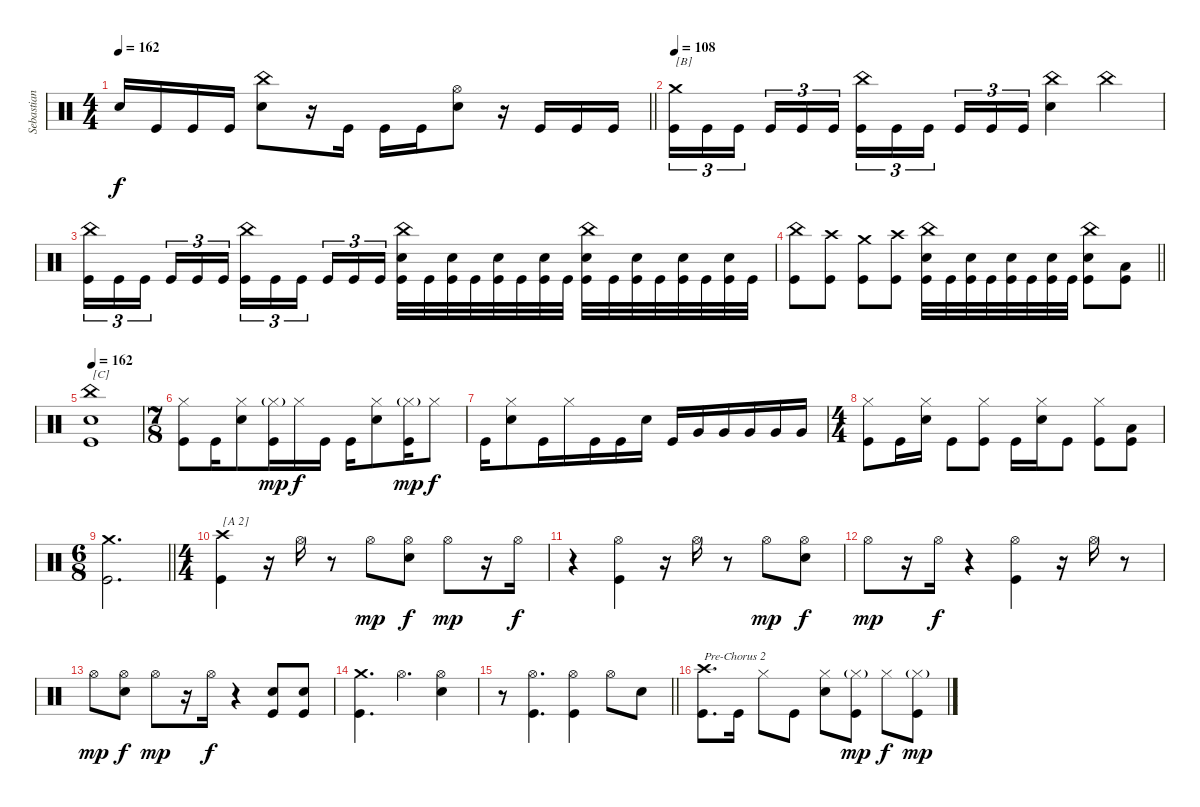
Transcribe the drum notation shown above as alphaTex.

\track ("Sebastian Lanser" "Sebastian ") {instrument percussion}
\staff {score}
\articulation defaults
\ts (4 4)
\tempo 162
\clef neutral
\barLineRight lightlight
\ks c "Snare (hit) 2".16{dy f} "Kick (hit)".16 "Kick (hit)".16 "Kick (hit)".16
("China (hit)" "Snare (hit) 2").8 r.16 "Kick (hit)".16 "Kick (hit)".16 "Kick (hit)".16 ("Hi-Hat (open)" "Snare (hit) 2").8 r.16 "Kick (hit)".16 "Kick (hit)".16 "Kick (hit)".16 |
\tempo 108
("Crash medium (hit)" "Kick (hit)").16{tu (3 2) txt "[B]"} "Kick (hit)".16{tu (3 2)} "Kick (hit)".16{tu (3 2) beam splitsecondary} "Kick (hit)".16{tu (3 2)} "Kick (hit)".16{tu (3 2)} "Kick (hit)".16{tu (3 2)} ("China (hit)" "Kick (hit)").16{tu (3 2)} "Kick (hit)".16{tu (3 2)} "Kick (hit)".16{tu (3 2) beam splitsecondary} "Kick (hit)".16{tu (3 2)} "Kick (hit)".16{tu (3 2)} "Kick (hit)".16{tu (3 2)} ("China (hit)" "Snare (hit) 2").4 "China (hit)".4 |
("China (hit)" "Kick (hit)").16{tu (3 2)} "Kick (hit)".16{tu (3 2)} "Kick (hit)".16{tu (3 2) beam splitsecondary} "Kick (hit)".16{tu (3 2)} "Kick (hit)".16{tu (3 2)} "Kick (hit)".16{tu (3 2)} ("China (hit)" "Kick (hit)").16{tu (3 2)} "Kick (hit)".16{tu (3 2)} "Kick (hit)".16{tu (3 2) beam splitsecondary} "Kick (hit)".16{tu (3 2)} "Kick (hit)".16{tu (3 2)} "Kick (hit)".16{tu (3 2)} ("China (hit)" "Snare (hit) 2" "Kick (hit)").32 "Kick (hit)".32 ("Snare (hit) 2" "Kick (hit)").32 "Kick (hit)".32 ("Snare (hit) 2" "Kick (hit)").32 "Kick (hit)".32 ("Snare (hit) 2" "Kick (hit)").32 "Kick (hit)".32 ("China (hit)" "Snare (hit) 2" "Kick (hit)").32 "Kick (hit)".32 ("Snare (hit) 2" "Kick (hit)").32 "Kick (hit)".32 ("Snare (hit) 2" "Kick (hit)").32 "Kick (hit)".32 ("Snare (hit) 2" "Kick (hit)").32 "Kick (hit)".32 |
\barLineRight lightlight
("China (hit)" "Kick (hit)").8 ("Crash high (hit)" "Kick (hit)").8 ("Crash medium (hit)" "Kick (hit)").8 ("Crash high (hit)" "Kick (hit)").8 ("China (hit)" "Snare (hit) 2" "Kick (hit)").32 "Kick (hit)".32 ("Snare (hit) 2" "Kick (hit)").32 "Kick (hit)".32 ("Snare (hit) 2" "Kick (hit)").32 "Kick (hit)".32 ("Snare (hit) 2" "Kick (hit)").32 "Kick (hit)".32 ("China (hit)" "Snare (hit) 2" "Kick (hit)").8 ("Low Tom (hit)" "Kick (hit)").8 |
\tempo 162
("China (hit)" "Snare (hit) 2" "Kick (hit)").1{txt "[C]"} |
\ts (7 8)
("Hi-Hat (closed)" "Kick (hit)").8 "Kick (hit)".16 ("Hi-Hat (closed)" "Snare (hit) 2").8 ("Hi-Hat (closed)"{g} "Kick (hit)").16{dy mp} "Hi-Hat (closed)".16{dy f} "Kick (hit)".16 "Kick (hit)".16 ("Hi-Hat (closed)" "Snare (hit) 2").8 ("Hi-Hat (closed)"{g} "Kick (hit)").16{dy mp} "Hi-Hat (closed)".8{dy f} |
"Kick (hit)".16 ("Hi-Hat (closed)" "Snare (hit) 2").8 "Kick (hit)".16 "Hi-Hat (closed)".16 "Kick (hit)".16 "Kick (hit)".16 "Snare (hit) 2".16 "Kick (hit)".16 "Very Low Tom (hit)".16 "Very Low Tom (hit)".16 "Very Low Tom (hit)".16 "Very Low Tom (hit)".16 "Very Low Tom (hit)".16 |
\ts (4 4)
("Hi-Hat (closed)" "Kick (hit)").8 "Kick (hit)".16 ("Hi-Hat (closed)" "Snare (hit) 2").16 "Kick (hit)".8 ("Hi-Hat (closed)" "Kick (hit)").8 "Kick (hit)".16 ("Hi-Hat (closed)" "Snare (hit) 2").16 "Kick (hit)".8 ("Hi-Hat (closed)" "Kick (hit)").8 ("Low Tom (hit)" "Kick (hit)").8 |
\ts (6 8)
\barLineRight lightlight
("Crash medium (hit)" "Kick (hit)").2{d} |
\ts (4 4)
("Crash high (hit)" "Kick (hit)").4{txt "[A 2]"} r.16 "Hi-Hat (open)".16 r.8 "Hi-Hat (open)".8{dy mp} ("Hi-Hat (open)" "Snare (hit) 2").8{dy f} "Hi-Hat (open)".8{dy mp} r.16 "Hi-Hat (open)".16{dy f} |
r.4 ("Hi-Hat (open)" "Kick (hit)").4 r.16 "Hi-Hat (open)".16 r.8 "Hi-Hat (open)".8{dy mp} ("Hi-Hat (open)" "Snare (hit) 2").8{dy f} |
"Hi-Hat (open)".8{dy mp} r.16 "Hi-Hat (open)".16{dy f} r.4 ("Hi-Hat (open)" "Kick (hit)").4 r.16 "Hi-Hat (open)".16 r.8 |
"Hi-Hat (open)".8{dy mp} ("Hi-Hat (open)" "Snare (hit) 2").8{dy f} "Hi-Hat (open)".8{dy mp} r.16 "Hi-Hat (open)".16{dy f} r.4 ("Snare (hit) 2" "Kick (hit)").8 ("Snare (hit) 2" "Kick (hit)").8 |
("Crash medium (hit)" "Kick (hit)").4{d} "Hi-Hat (open)".4{d} ("Hi-Hat (open)" "Snare (hit) 2").4 |
\barLineRight lightlight
r.8 ("Hi-Hat (open)" "Kick (hit)").4{d} ("Hi-Hat (open)" "Kick (hit)").4 "Hi-Hat (open)".8 "Snare (hit) 2".8 |
("Crash high (hit)" "Kick (hit)").8{d txt "Pre-Chorus 2"} "Kick (hit)".16 "Hi-Hat (closed)".8 "Kick (hit)".8 ("Hi-Hat (closed)" "Snare (hit) 2").8 ("Hi-Hat (closed)"{g} "Kick (hit)").8{dy mp} "Hi-Hat (closed)".8{dy f} ("Hi-Hat (closed)"{g} "Kick (hit)").8{dy mp}
